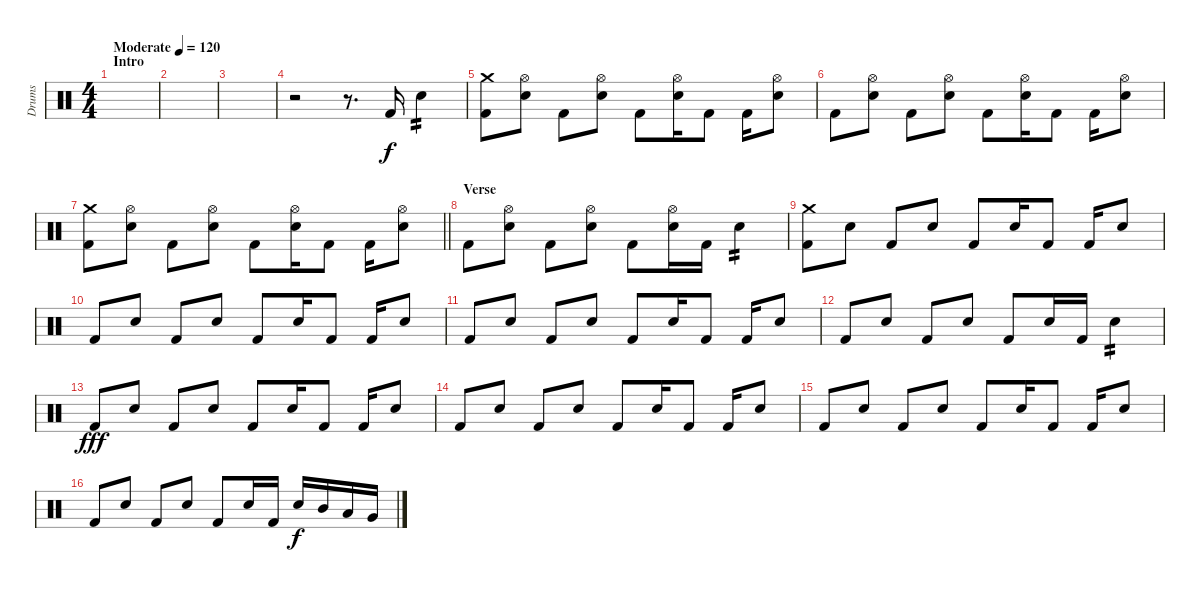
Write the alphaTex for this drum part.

\track ("Drums" "Drums") {instrument percussion}
\staff {score}
\articulation defaults
\ts (4 4)
\section ("" "Intro")
\tempo (120 "Moderate")
\clef neutral
\ks c
|
|
|
r.2 r.8{d} "Kick (hit) 2".16 "Snare (hit) 2".4{tp 2} |
("Crash medium (hit)" "Kick (hit) 2").8 ("Hi-Hat (open)" "Snare (hit) 2").8 "Kick (hit) 2".8 ("Hi-Hat (open)" "Snare (hit) 2").8 "Kick (hit) 2".8 ("Hi-Hat (open)" "Snare (hit) 2").16 "Kick (hit) 2".8 "Kick (hit) 2".16 ("Hi-Hat (open)" "Snare (hit) 2").8 |
"Kick (hit) 2".8 ("Hi-Hat (open)" "Snare (hit) 2").8 "Kick (hit) 2".8 ("Hi-Hat (open)" "Snare (hit) 2").8 "Kick (hit) 2".8 ("Hi-Hat (open)" "Snare (hit) 2").16 "Kick (hit) 2".8 "Kick (hit) 2".16 ("Hi-Hat (open)" "Snare (hit) 2").8 |
\barLineRight lightlight
("Crash medium (hit)" "Kick (hit) 2").8 ("Hi-Hat (open)" "Snare (hit) 2").8 "Kick (hit) 2".8 ("Hi-Hat (open)" "Snare (hit) 2").8 "Kick (hit) 2".8 ("Hi-Hat (open)" "Snare (hit) 2").16 "Kick (hit) 2".8 "Kick (hit) 2".16 ("Hi-Hat (open)" "Snare (hit) 2").8 |
\section ("" "Verse")
"Kick (hit) 2".8 ("Hi-Hat (open)" "Snare (hit) 2").8 "Kick (hit) 2".8 ("Hi-Hat (open)" "Snare (hit) 2").8 "Kick (hit) 2".8 ("Hi-Hat (open)" "Snare (hit) 2").16 "Kick (hit) 2".16 "Snare (hit) 2".4{tp 2} |
("Crash medium (hit)" "Kick (hit) 2").8 "Snare (hit) 2".8 "Kick (hit) 2".8 "Snare (hit) 2".8 "Kick (hit) 2".8 "Snare (hit) 2".16 "Kick (hit) 2".8 "Kick (hit) 2".16 "Snare (hit) 2".8 |
"Kick (hit) 2".8 "Snare (hit) 2".8 "Kick (hit) 2".8 "Snare (hit) 2".8 "Kick (hit) 2".8 "Snare (hit) 2".16 "Kick (hit) 2".8 "Kick (hit) 2".16 "Snare (hit) 2".8 |
"Kick (hit) 2".8 "Snare (hit) 2".8 "Kick (hit) 2".8 "Snare (hit) 2".8 "Kick (hit) 2".8 "Snare (hit) 2".16 "Kick (hit) 2".8 "Kick (hit) 2".16 "Snare (hit) 2".8 |
"Kick (hit) 2".8 "Snare (hit) 2".8 "Kick (hit) 2".8 "Snare (hit) 2".8 "Kick (hit) 2".8 "Snare (hit) 2".16 "Kick (hit) 2".16 "Snare (hit) 2".4{tp 2 dy f} |
"Kick (hit) 2".8{dy fff} "Snare (hit) 2".8 "Kick (hit) 2".8 "Snare (hit) 2".8 "Kick (hit) 2".8 "Snare (hit) 2".16 "Kick (hit) 2".8 "Kick (hit) 2".16 "Snare (hit) 2".8 |
"Kick (hit) 2".8 "Snare (hit) 2".8 "Kick (hit) 2".8 "Snare (hit) 2".8 "Kick (hit) 2".8 "Snare (hit) 2".16 "Kick (hit) 2".8 "Kick (hit) 2".16 "Snare (hit) 2".8 |
"Kick (hit) 2".8 "Snare (hit) 2".8 "Kick (hit) 2".8 "Snare (hit) 2".8 "Kick (hit) 2".8 "Snare (hit) 2".16 "Kick (hit) 2".8 "Kick (hit) 2".16 "Snare (hit) 2".8 |
"Kick (hit) 2".8 "Snare (hit) 2".8 "Kick (hit) 2".8 "Snare (hit) 2".8 "Kick (hit) 2".8 "Snare (hit) 2".16 "Kick (hit) 2".16 "Snare (hit) 2".16{dy f} "Mid Tom (hit)".16 "Low Tom (hit)".16 "Very Low Tom (hit)".16
